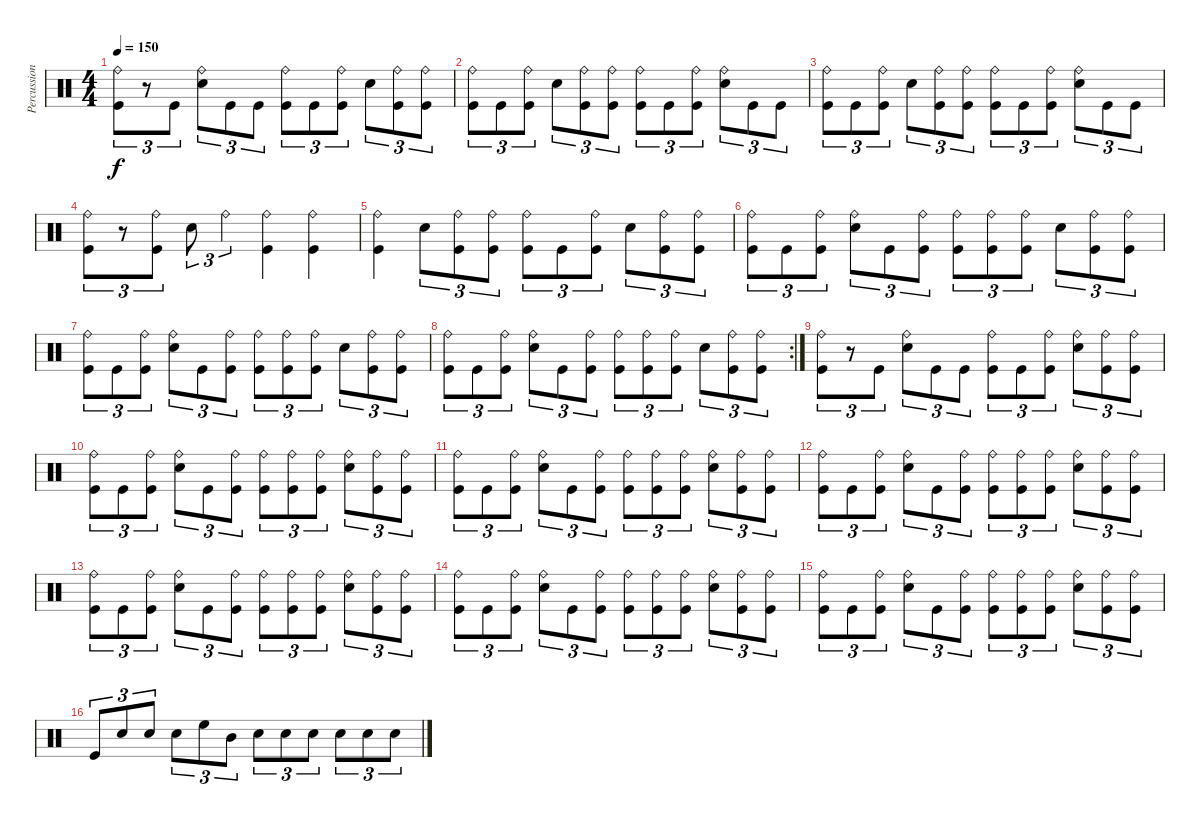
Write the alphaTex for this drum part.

\track ("Percussion" "Percussion") {instrument percussion}
\staff {score}
\articulation defaults
\ts (4 4)
\tempo 150
\clef neutral
\ks c
("Ride (bell)" "Kick (hit)").8{tu (3 2) dy f} r.8{tu (3 2)} "Kick (hit)".8{tu (3 2)} ("Ride (bell)" "Snare (hit) 2").8{tu (3 2)} "Kick (hit)".8{tu (3 2)} "Kick (hit)".8{tu (3 2)} ("Ride (bell)" "Kick (hit)").8{tu (3 2)} "Kick (hit)".8{tu (3 2)} ("Ride (bell)" "Kick (hit)").8{tu (3 2)} "Snare (hit) 2".8{tu (3 2)} ("Ride (bell)" "Kick (hit)").8{tu (3 2)} ("Ride (bell)" "Kick (hit)").8{tu (3 2)} |
("Ride (bell)" "Kick (hit)").8{tu (3 2)} "Kick (hit)".8{tu (3 2)} ("Ride (bell)" "Kick (hit)").8{tu (3 2)} "Snare (hit) 2".8{tu (3 2)} ("Ride (bell)" "Kick (hit)").8{tu (3 2)} ("Ride (bell)" "Kick (hit)").8{tu (3 2)} ("Ride (bell)" "Kick (hit)").8{tu (3 2)} "Kick (hit)".8{tu (3 2)} ("Ride (bell)" "Kick (hit)").8{tu (3 2)} ("Ride (bell)" "Snare (hit) 2").8{tu (3 2)} "Kick (hit)".8{tu (3 2)} "Kick (hit)".8{tu (3 2)} |
("Ride (bell)" "Kick (hit)").8{tu (3 2)} "Kick (hit)".8{tu (3 2)} ("Ride (bell)" "Kick (hit)").8{tu (3 2)} "Snare (hit) 2".8{tu (3 2)} ("Ride (bell)" "Kick (hit)").8{tu (3 2)} ("Ride (bell)" "Kick (hit)").8{tu (3 2)} ("Ride (bell)" "Kick (hit)").8{tu (3 2)} "Kick (hit)".8{tu (3 2)} ("Ride (bell)" "Kick (hit)").8{tu (3 2)} ("Ride (bell)" "Snare (hit) 2").8{tu (3 2)} "Kick (hit)".8{tu (3 2)} "Kick (hit)".8{tu (3 2)} |
("Ride (bell)" "Kick (hit)").8{tu (3 2)} r.8{tu (3 2)} ("Ride (bell)" "Kick (hit)").8{tu (3 2)} "Snare (hit) 2".8{tu (3 2)} "Ride (bell)".4{tu (3 2)} ("Ride (bell)" "Kick (hit)").4 ("Ride (bell)" "Kick (hit)").4 |
("Ride (bell)" "Kick (hit)").4 "Snare (hit) 2".8{tu (3 2)} ("Ride (bell)" "Kick (hit)").8{tu (3 2)} ("Ride (bell)" "Kick (hit)").8{tu (3 2)} ("Ride (bell)" "Kick (hit)").8{tu (3 2)} "Kick (hit)".8{tu (3 2)} ("Ride (bell)" "Kick (hit)").8{tu (3 2)} "Snare (hit) 2".8{tu (3 2)} ("Ride (bell)" "Kick (hit)").8{tu (3 2)} ("Ride (bell)" "Kick (hit)").8{tu (3 2)} |
("Ride (bell)" "Kick (hit)").8{tu (3 2)} "Kick (hit)".8{tu (3 2)} ("Ride (bell)" "Kick (hit)").8{tu (3 2)} ("Ride (bell)" "Snare (hit) 2").8{tu (3 2)} "Kick (hit)".8{tu (3 2)} ("Ride (bell)" "Kick (hit)").8{tu (3 2)} ("Ride (bell)" "Kick (hit)").8{tu (3 2)} ("Ride (bell)" "Kick (hit)").8{tu (3 2)} ("Ride (bell)" "Kick (hit)").8{tu (3 2)} "Snare (hit) 2".8{tu (3 2)} ("Ride (bell)" "Kick (hit)").8{tu (3 2)} ("Ride (bell)" "Kick (hit)").8{tu (3 2)} |
("Ride (bell)" "Kick (hit)").8{tu (3 2)} "Kick (hit)".8{tu (3 2)} ("Ride (bell)" "Kick (hit)").8{tu (3 2)} ("Ride (bell)" "Snare (hit) 2").8{tu (3 2)} "Kick (hit)".8{tu (3 2)} ("Ride (bell)" "Kick (hit)").8{tu (3 2)} ("Ride (bell)" "Kick (hit)").8{tu (3 2)} ("Ride (bell)" "Kick (hit)").8{tu (3 2)} ("Ride (bell)" "Kick (hit)").8{tu (3 2)} "Snare (hit) 2".8{tu (3 2)} ("Ride (bell)" "Kick (hit)").8{tu (3 2)} ("Ride (bell)" "Kick (hit)").8{tu (3 2)} |
\rc 2
("Ride (bell)" "Kick (hit)").8{tu (3 2)} "Kick (hit)".8{tu (3 2)} ("Ride (bell)" "Kick (hit)").8{tu (3 2)} ("Ride (bell)" "Snare (hit) 2").8{tu (3 2)} "Kick (hit)".8{tu (3 2)} ("Ride (bell)" "Kick (hit)").8{tu (3 2)} ("Ride (bell)" "Kick (hit)").8{tu (3 2)} ("Ride (bell)" "Kick (hit)").8{tu (3 2)} ("Ride (bell)" "Kick (hit)").8{tu (3 2)} "Snare (hit) 2".8{tu (3 2)} ("Ride (bell)" "Kick (hit)").8{tu (3 2)} ("Ride (bell)" "Kick (hit)").8{tu (3 2)} |
("Ride (bell)" "Kick (hit)").8{tu (3 2)} r.8{tu (3 2)} "Kick (hit)".8{tu (3 2)} ("Ride (bell)" "Snare (hit) 2").8{tu (3 2)} "Kick (hit)".8{tu (3 2)} "Kick (hit)".8{tu (3 2)} ("Ride (bell)" "Kick (hit)").8{tu (3 2)} "Kick (hit)".8{tu (3 2)} ("Ride (bell)" "Kick (hit)").8{tu (3 2)} ("Ride (bell)" "Snare (hit) 2").8{tu (3 2)} ("Ride (bell)" "Kick (hit)").8{tu (3 2)} ("Ride (bell)" "Kick (hit)").8{tu (3 2)} |
("Ride (bell)" "Kick (hit)").8{tu (3 2)} "Kick (hit)".8{tu (3 2)} ("Ride (bell)" "Kick (hit)").8{tu (3 2)} ("Ride (bell)" "Snare (hit) 2").8{tu (3 2)} "Kick (hit)".8{tu (3 2)} ("Ride (bell)" "Kick (hit)").8{tu (3 2)} ("Ride (bell)" "Kick (hit)").8{tu (3 2)} ("Ride (bell)" "Kick (hit)").8{tu (3 2)} ("Ride (bell)" "Kick (hit)").8{tu (3 2)} ("Ride (bell)" "Snare (hit) 2").8{tu (3 2)} ("Ride (bell)" "Kick (hit)").8{tu (3 2)} ("Ride (bell)" "Kick (hit)").8{tu (3 2)} |
("Ride (bell)" "Kick (hit)").8{tu (3 2)} "Kick (hit)".8{tu (3 2)} ("Ride (bell)" "Kick (hit)").8{tu (3 2)} ("Ride (bell)" "Snare (hit) 2").8{tu (3 2)} "Kick (hit)".8{tu (3 2)} ("Ride (bell)" "Kick (hit)").8{tu (3 2)} ("Ride (bell)" "Kick (hit)").8{tu (3 2)} ("Ride (bell)" "Kick (hit)").8{tu (3 2)} ("Ride (bell)" "Kick (hit)").8{tu (3 2)} ("Ride (bell)" "Snare (hit) 2").8{tu (3 2)} ("Ride (bell)" "Kick (hit)").8{tu (3 2)} ("Ride (bell)" "Kick (hit)").8{tu (3 2)} |
("Ride (bell)" "Kick (hit)").8{tu (3 2)} "Kick (hit)".8{tu (3 2)} ("Ride (bell)" "Kick (hit)").8{tu (3 2)} ("Ride (bell)" "Snare (hit) 2").8{tu (3 2)} "Kick (hit)".8{tu (3 2)} ("Ride (bell)" "Kick (hit)").8{tu (3 2)} ("Ride (bell)" "Kick (hit)").8{tu (3 2)} ("Ride (bell)" "Kick (hit)").8{tu (3 2)} ("Ride (bell)" "Kick (hit)").8{tu (3 2)} ("Ride (bell)" "Snare (hit) 2").8{tu (3 2)} ("Ride (bell)" "Kick (hit)").8{tu (3 2)} ("Ride (bell)" "Kick (hit)").8{tu (3 2)} |
("Ride (bell)" "Kick (hit)").8{tu (3 2)} "Kick (hit)".8{tu (3 2)} ("Ride (bell)" "Kick (hit)").8{tu (3 2)} ("Ride (bell)" "Snare (hit) 2").8{tu (3 2)} "Kick (hit)".8{tu (3 2)} ("Ride (bell)" "Kick (hit)").8{tu (3 2)} ("Ride (bell)" "Kick (hit)").8{tu (3 2)} ("Ride (bell)" "Kick (hit)").8{tu (3 2)} ("Ride (bell)" "Kick (hit)").8{tu (3 2)} ("Ride (bell)" "Snare (hit) 2").8{tu (3 2)} ("Ride (bell)" "Kick (hit)").8{tu (3 2)} ("Ride (bell)" "Kick (hit)").8{tu (3 2)} |
("Ride (bell)" "Kick (hit)").8{tu (3 2)} "Kick (hit)".8{tu (3 2)} ("Ride (bell)" "Kick (hit)").8{tu (3 2)} ("Ride (bell)" "Snare (hit) 2").8{tu (3 2)} "Kick (hit)".8{tu (3 2)} ("Ride (bell)" "Kick (hit)").8{tu (3 2)} ("Ride (bell)" "Kick (hit)").8{tu (3 2)} ("Ride (bell)" "Kick (hit)").8{tu (3 2)} ("Ride (bell)" "Kick (hit)").8{tu (3 2)} ("Ride (bell)" "Snare (hit) 2").8{tu (3 2)} ("Ride (bell)" "Kick (hit)").8{tu (3 2)} ("Ride (bell)" "Kick (hit)").8{tu (3 2)} |
("Ride (bell)" "Kick (hit)").8{tu (3 2)} "Kick (hit)".8{tu (3 2)} ("Ride (bell)" "Kick (hit)").8{tu (3 2)} ("Ride (bell)" "Snare (hit) 2").8{tu (3 2)} "Kick (hit)".8{tu (3 2)} ("Ride (bell)" "Kick (hit)").8{tu (3 2)} ("Ride (bell)" "Kick (hit)").8{tu (3 2)} ("Ride (bell)" "Kick (hit)").8{tu (3 2)} ("Ride (bell)" "Kick (hit)").8{tu (3 2)} ("Ride (bell)" "Snare (hit) 2").8{tu (3 2)} ("Ride (bell)" "Kick (hit)").8{tu (3 2)} ("Ride (bell)" "Kick (hit)").8{tu (3 2)} |
"Kick (hit)".8{tu (3 2)} "Snare (hit) 2".8{tu (3 2)} "Snare (hit) 2".8{tu (3 2)} "Snare (hit) 2".8{tu (3 2)} "High Floor Tom (hit)".8{tu (3 2)} "Mid Tom (hit)".8{tu (3 2)} "Snare (hit) 2".8{tu (3 2)} "Snare (hit) 2".8{tu (3 2)} "Snare (hit) 2".8{tu (3 2)} "Snare (hit) 2".8{tu (3 2)} "Snare (hit) 2".8{tu (3 2)} "Snare (hit) 2".8{tu (3 2)}
